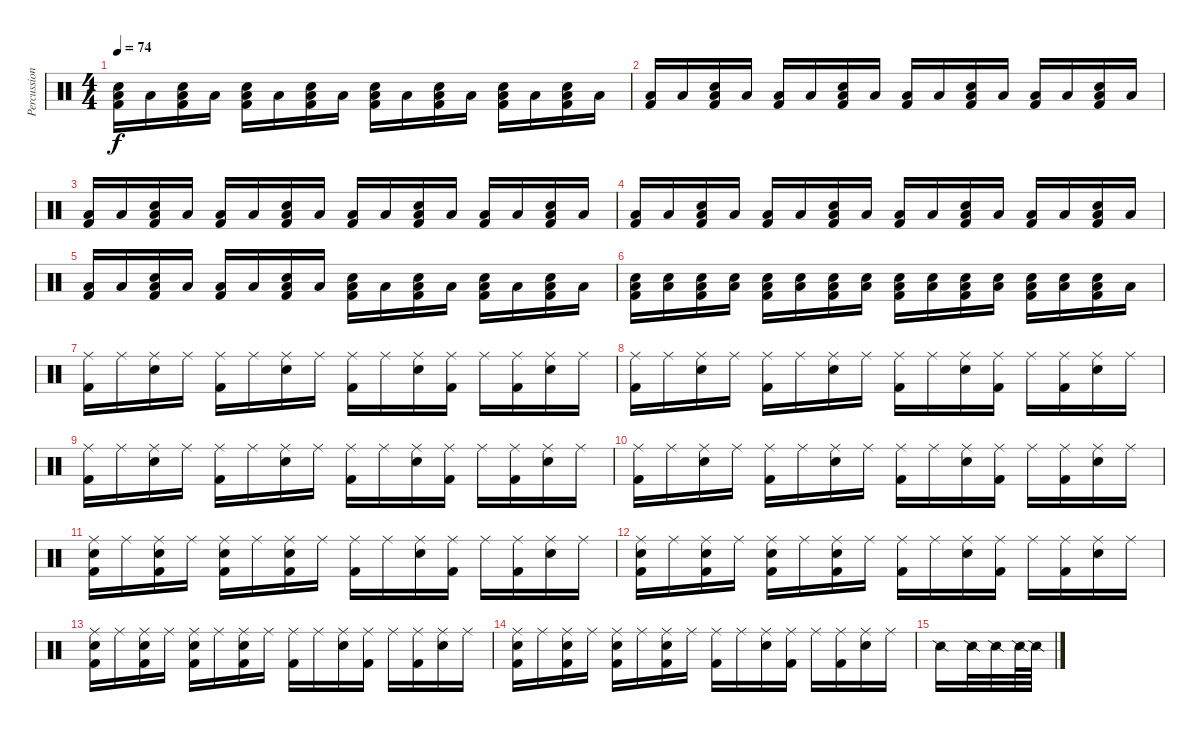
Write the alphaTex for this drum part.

\track ("Percussion" "Percussion") {instrument percussion}
\staff {score}
\articulation defaults
\ts (4 4)
\tempo 74
\clef neutral
\ks c
("Low Floor Tom (hit)" "Kick (hit) 2" "Electric Snare (hit)").16{dy f} "Low Floor Tom (hit)".16 ("Low Floor Tom (hit)" "Kick (hit) 2" "Electric Snare (hit)").16 "Low Floor Tom (hit)".16 ("Low Floor Tom (hit)" "Kick (hit) 2" "Electric Snare (hit)").16 "Low Floor Tom (hit)".16 ("Low Floor Tom (hit)" "Kick (hit) 2" "Electric Snare (hit)").16 "Low Floor Tom (hit)".16 ("Low Floor Tom (hit)" "Kick (hit) 2" "Electric Snare (hit)").16 "Low Floor Tom (hit)".16 ("Low Floor Tom (hit)" "Kick (hit) 2" "Electric Snare (hit)").16 "Low Floor Tom (hit)".16 ("Low Floor Tom (hit)" "Kick (hit) 2" "Electric Snare (hit)").16 "Low Floor Tom (hit)".16 ("Low Floor Tom (hit)" "Kick (hit) 2" "Electric Snare (hit)").16 "Low Floor Tom (hit)".16 |
("Low Floor Tom (hit)" "Kick (hit) 2").16 "Low Floor Tom (hit)".16 ("Low Floor Tom (hit)" "Kick (hit) 2" "Electric Snare (hit)").16 "Low Floor Tom (hit)".16 ("Low Floor Tom (hit)" "Kick (hit) 2").16 "Low Floor Tom (hit)".16 ("Low Floor Tom (hit)" "Kick (hit) 2" "Electric Snare (hit)").16 "Low Floor Tom (hit)".16 ("Low Floor Tom (hit)" "Kick (hit) 2").16 "Low Floor Tom (hit)".16 ("Low Floor Tom (hit)" "Kick (hit) 2" "Electric Snare (hit)").16 "Low Floor Tom (hit)".16 ("Low Floor Tom (hit)" "Kick (hit) 2").16 "Low Floor Tom (hit)".16 ("Low Floor Tom (hit)" "Kick (hit) 2" "Electric Snare (hit)").16 "Low Floor Tom (hit)".16 |
("Low Floor Tom (hit)" "Kick (hit) 2").16 "Low Floor Tom (hit)".16 ("Low Floor Tom (hit)" "Kick (hit) 2" "Electric Snare (hit)").16 "Low Floor Tom (hit)".16 ("Low Floor Tom (hit)" "Kick (hit) 2").16 "Low Floor Tom (hit)".16 ("Low Floor Tom (hit)" "Kick (hit) 2" "Electric Snare (hit)").16 "Low Floor Tom (hit)".16 ("Low Floor Tom (hit)" "Kick (hit) 2").16 "Low Floor Tom (hit)".16 ("Low Floor Tom (hit)" "Kick (hit) 2" "Electric Snare (hit)").16 "Low Floor Tom (hit)".16 ("Low Floor Tom (hit)" "Kick (hit) 2").16 "Low Floor Tom (hit)".16 ("Low Floor Tom (hit)" "Kick (hit) 2" "Electric Snare (hit)").16 "Low Floor Tom (hit)".16 |
("Low Floor Tom (hit)" "Kick (hit) 2").16 "Low Floor Tom (hit)".16 ("Low Floor Tom (hit)" "Kick (hit) 2" "Electric Snare (hit)").16 "Low Floor Tom (hit)".16 ("Low Floor Tom (hit)" "Kick (hit) 2").16 "Low Floor Tom (hit)".16 ("Low Floor Tom (hit)" "Kick (hit) 2" "Electric Snare (hit)").16 "Low Floor Tom (hit)".16 ("Low Floor Tom (hit)" "Kick (hit) 2").16 "Low Floor Tom (hit)".16 ("Low Floor Tom (hit)" "Kick (hit) 2" "Electric Snare (hit)").16 "Low Floor Tom (hit)".16 ("Low Floor Tom (hit)" "Kick (hit) 2").16 "Low Floor Tom (hit)".16 ("Low Floor Tom (hit)" "Kick (hit) 2" "Electric Snare (hit)").16 "Low Floor Tom (hit)".16 |
("Low Floor Tom (hit)" "Kick (hit) 2").16 "Low Floor Tom (hit)".16 ("Low Floor Tom (hit)" "Kick (hit) 2" "Electric Snare (hit)").16 "Low Floor Tom (hit)".16 ("Low Floor Tom (hit)" "Kick (hit) 2").16 "Low Floor Tom (hit)".16 ("Low Floor Tom (hit)" "Kick (hit) 2" "Electric Snare (hit)").16 "Low Floor Tom (hit)".16 ("Low Floor Tom (hit)" "Kick (hit) 2" "Electric Snare (hit)").16 "Low Floor Tom (hit)".16 ("Low Floor Tom (hit)" "Kick (hit) 2" "Electric Snare (hit)").16 "Low Floor Tom (hit)".16 ("Low Floor Tom (hit)" "Kick (hit) 2" "Electric Snare (hit)").16 "Low Floor Tom (hit)".16 ("Low Floor Tom (hit)" "Kick (hit) 2" "Electric Snare (hit)").16 "Low Floor Tom (hit)".16 |
("Low Floor Tom (hit)" "Kick (hit) 2" "Electric Snare (hit)").16 ("Low Floor Tom (hit)" "Electric Snare (hit)").16 ("Low Floor Tom (hit)" "Kick (hit) 2" "Electric Snare (hit)").16 ("Low Floor Tom (hit)" "Electric Snare (hit)").16 ("Low Floor Tom (hit)" "Kick (hit) 2" "Electric Snare (hit)").16 ("Low Floor Tom (hit)" "Electric Snare (hit)").16 ("Low Floor Tom (hit)" "Kick (hit) 2" "Electric Snare (hit)").16 ("Low Floor Tom (hit)" "Electric Snare (hit)").16 ("Low Floor Tom (hit)" "Kick (hit) 2" "Electric Snare (hit)").16 ("Low Floor Tom (hit)" "Electric Snare (hit)").16 ("Low Floor Tom (hit)" "Kick (hit) 2" "Electric Snare (hit)").16 ("Low Floor Tom (hit)" "Electric Snare (hit)").16 ("Low Floor Tom (hit)" "Kick (hit) 2" "Electric Snare (hit)").16 ("Low Floor Tom (hit)" "Electric Snare (hit)").16 ("Low Floor Tom (hit)" "Kick (hit) 2" "Electric Snare (hit)").16 "Low Floor Tom (hit)".16 |
("Ride (middle)" "Kick (hit) 2").16 "Ride (middle)".16 ("Ride (middle)" "Electric Snare (hit)").16 "Ride (middle)".16 ("Ride (middle)" "Kick (hit) 2").16 "Ride (middle)".16 ("Ride (middle)" "Electric Snare (hit)").16 "Ride (middle)".16 ("Ride (middle)" "Kick (hit) 2").16 "Ride (middle)".16 ("Ride (middle)" "Electric Snare (hit)").16 ("Ride (middle)" "Kick (hit) 2").16 "Ride (middle)".16 ("Ride (middle)" "Kick (hit) 2").16 ("Ride (middle)" "Electric Snare (hit)").16 "Ride (middle)".16 |
("Ride (middle)" "Kick (hit) 2").16 "Ride (middle)".16 ("Ride (middle)" "Electric Snare (hit)").16 "Ride (middle)".16 ("Ride (middle)" "Kick (hit) 2").16 "Ride (middle)".16 ("Ride (middle)" "Electric Snare (hit)").16 "Ride (middle)".16 ("Ride (middle)" "Kick (hit) 2").16 "Ride (middle)".16 ("Ride (middle)" "Electric Snare (hit)").16 ("Ride (middle)" "Kick (hit) 2").16 "Ride (middle)".16 ("Ride (middle)" "Kick (hit) 2").16 ("Ride (middle)" "Electric Snare (hit)").16 "Ride (middle)".16 |
("Ride (middle)" "Kick (hit) 2").16 "Ride (middle)".16 ("Ride (middle)" "Electric Snare (hit)").16 "Ride (middle)".16 ("Ride (middle)" "Kick (hit) 2").16 "Ride (middle)".16 ("Ride (middle)" "Electric Snare (hit)").16 "Ride (middle)".16 ("Ride (middle)" "Kick (hit) 2").16 "Ride (middle)".16 ("Ride (middle)" "Electric Snare (hit)").16 ("Ride (middle)" "Kick (hit) 2").16 "Ride (middle)".16 ("Ride (middle)" "Kick (hit) 2").16 ("Ride (middle)" "Electric Snare (hit)").16 "Ride (middle)".16 |
("Ride (middle)" "Kick (hit) 2").16 "Ride (middle)".16 ("Ride (middle)" "Electric Snare (hit)").16 "Ride (middle)".16 ("Ride (middle)" "Kick (hit) 2").16 "Ride (middle)".16 ("Ride (middle)" "Electric Snare (hit)").16 "Ride (middle)".16 ("Ride (middle)" "Kick (hit) 2").16 "Ride (middle)".16 ("Ride (middle)" "Electric Snare (hit)").16 ("Ride (middle)" "Kick (hit) 2").16 "Ride (middle)".16 ("Ride (middle)" "Kick (hit) 2").16 ("Ride (middle)" "Electric Snare (hit)").16 "Ride (middle)".16 |
("Ride (middle)" "Kick (hit) 2" "Electric Snare (hit)").16 "Ride (middle)".16 ("Ride (middle)" "Kick (hit) 2" "Electric Snare (hit)").16 "Ride (middle)".16 ("Ride (middle)" "Kick (hit) 2" "Electric Snare (hit)").16 "Ride (middle)".16 ("Ride (middle)" "Kick (hit) 2" "Electric Snare (hit)").16 "Ride (middle)".16 ("Ride (middle)" "Kick (hit) 2").16 "Ride (middle)".16 ("Ride (middle)" "Electric Snare (hit)").16 ("Ride (middle)" "Kick (hit) 2").16 "Ride (middle)".16 ("Ride (middle)" "Kick (hit) 2").16 ("Ride (middle)" "Electric Snare (hit)").16 "Ride (middle)".16 |
("Ride (middle)" "Kick (hit) 2" "Electric Snare (hit)").16 "Ride (middle)".16 ("Ride (middle)" "Kick (hit) 2" "Electric Snare (hit)").16 "Ride (middle)".16 ("Ride (middle)" "Kick (hit) 2" "Electric Snare (hit)").16 "Ride (middle)".16 ("Ride (middle)" "Kick (hit) 2" "Electric Snare (hit)").16 "Ride (middle)".16 ("Ride (middle)" "Kick (hit) 2").16 "Ride (middle)".16 ("Ride (middle)" "Electric Snare (hit)").16 ("Ride (middle)" "Kick (hit) 2").16 "Ride (middle)".16 ("Ride (middle)" "Kick (hit) 2").16 ("Ride (middle)" "Electric Snare (hit)").16 "Ride (middle)".16 |
("Ride (middle)" "Kick (hit) 2" "Electric Snare (hit)").16 "Ride (middle)".16 ("Ride (middle)" "Kick (hit) 2" "Electric Snare (hit)").16 "Ride (middle)".16 ("Ride (middle)" "Kick (hit) 2" "Electric Snare (hit)").16 "Ride (middle)".16 ("Ride (middle)" "Kick (hit) 2" "Electric Snare (hit)").16 "Ride (middle)".16 ("Ride (middle)" "Kick (hit) 2").16 "Ride (middle)".16 ("Ride (middle)" "Electric Snare (hit)").16 ("Ride (middle)" "Kick (hit) 2").16 "Ride (middle)".16 ("Ride (middle)" "Kick (hit) 2").16 ("Ride (middle)" "Electric Snare (hit)").16 "Ride (middle)".16 |
("Ride (middle)" "Kick (hit) 2" "Electric Snare (hit)").16 "Ride (middle)".16 ("Ride (middle)" "Kick (hit) 2" "Electric Snare (hit)").16 "Ride (middle)".16 ("Ride (middle)" "Kick (hit) 2" "Electric Snare (hit)").16 "Ride (middle)".16 ("Ride (middle)" "Kick (hit) 2" "Electric Snare (hit)").16 "Ride (middle)".16 ("Ride (middle)" "Kick (hit) 2").16 "Ride (middle)".16 ("Ride (middle)" "Electric Snare (hit)").16 ("Ride (middle)" "Kick (hit) 2").16 "Ride (middle)".16 ("Ride (middle)" "Kick (hit) 2").16 ("Ride (middle)" "Electric Snare (hit)").16 "Ride (middle)".16 |
"Snare (side stick) 2".16 "Snare (side stick) 2".32 "Snare (side stick) 2".32 "Snare (side stick) 2".64 "Snare (side stick) 2".64
